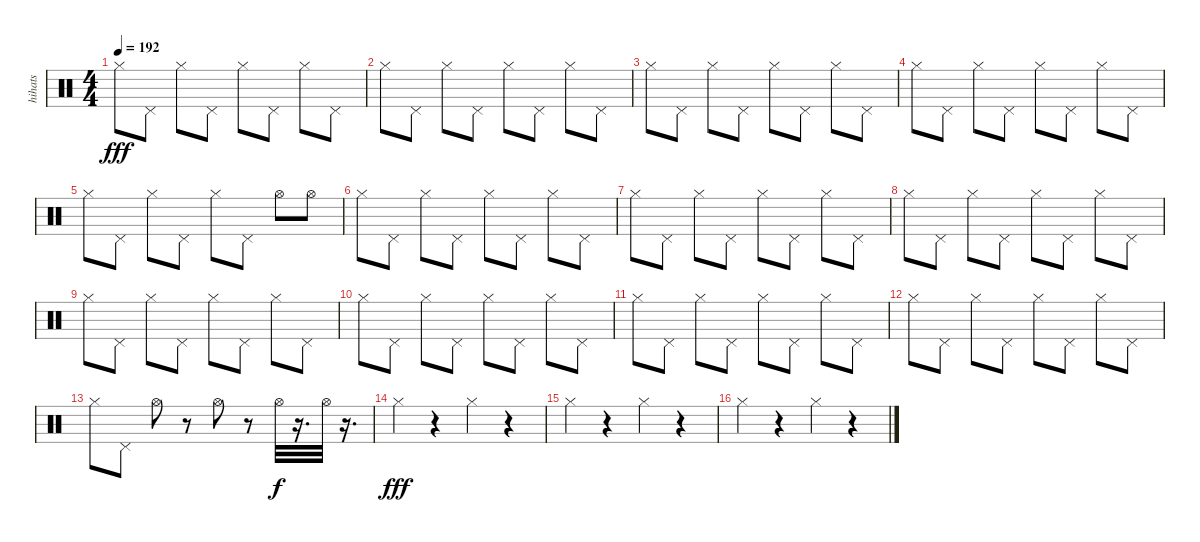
\track ("hihats" "hihats") {instrument percussion}
\staff {score}
\articulation defaults
\ts (4 4)
\tempo 192
\clef neutral
\ks c "Hi-Hat (closed)".8{dy fff} "Pedal Hi-Hat (hit)".8 "Hi-Hat (closed)".8 "Pedal Hi-Hat (hit)".8 "Hi-Hat (closed)".8 "Pedal Hi-Hat (hit)".8 "Hi-Hat (closed)".8 "Pedal Hi-Hat (hit)".8
|
"Hi-Hat (closed)".8 "Pedal Hi-Hat (hit)".8 "Hi-Hat (closed)".8 "Pedal Hi-Hat (hit)".8 "Hi-Hat (closed)".8 "Pedal Hi-Hat (hit)".8 "Hi-Hat (closed)".8 "Pedal Hi-Hat (hit)".8 |
"Hi-Hat (closed)".8 "Pedal Hi-Hat (hit)".8 "Hi-Hat (closed)".8 "Pedal Hi-Hat (hit)".8 "Hi-Hat (closed)".8 "Pedal Hi-Hat (hit)".8 "Hi-Hat (closed)".8 "Pedal Hi-Hat (hit)".8 |
"Hi-Hat (closed)".8 "Pedal Hi-Hat (hit)".8 "Hi-Hat (closed)".8 "Pedal Hi-Hat (hit)".8 "Hi-Hat (closed)".8 "Pedal Hi-Hat (hit)".8 "Hi-Hat (closed)".8 "Pedal Hi-Hat (hit)".8 |
"Hi-Hat (closed)".8 "Pedal Hi-Hat (hit)".8 "Hi-Hat (closed)".8 "Pedal Hi-Hat (hit)".8 "Hi-Hat (closed)".8 "Pedal Hi-Hat (hit)".8 "Hi-Hat (open)".8 "Hi-Hat (open)".8 |
"Hi-Hat (closed)".8 "Pedal Hi-Hat (hit)".8 "Hi-Hat (closed)".8 "Pedal Hi-Hat (hit)".8 "Hi-Hat (closed)".8 "Pedal Hi-Hat (hit)".8 "Hi-Hat (closed)".8 "Pedal Hi-Hat (hit)".8 |
"Hi-Hat (closed)".8 "Pedal Hi-Hat (hit)".8 "Hi-Hat (closed)".8 "Pedal Hi-Hat (hit)".8 "Hi-Hat (closed)".8 "Pedal Hi-Hat (hit)".8 "Hi-Hat (closed)".8 "Pedal Hi-Hat (hit)".8 |
"Hi-Hat (closed)".8 "Pedal Hi-Hat (hit)".8 "Hi-Hat (closed)".8 "Pedal Hi-Hat (hit)".8 "Hi-Hat (closed)".8 "Pedal Hi-Hat (hit)".8 "Hi-Hat (closed)".8 "Pedal Hi-Hat (hit)".8 |
"Hi-Hat (closed)".8 "Pedal Hi-Hat (hit)".8 "Hi-Hat (closed)".8 "Pedal Hi-Hat (hit)".8 "Hi-Hat (closed)".8 "Pedal Hi-Hat (hit)".8 "Hi-Hat (closed)".8 "Pedal Hi-Hat (hit)".8 |
"Hi-Hat (closed)".8 "Pedal Hi-Hat (hit)".8 "Hi-Hat (closed)".8 "Pedal Hi-Hat (hit)".8 "Hi-Hat (closed)".8 "Pedal Hi-Hat (hit)".8 "Hi-Hat (closed)".8 "Pedal Hi-Hat (hit)".8 |
"Hi-Hat (closed)".8 "Pedal Hi-Hat (hit)".8 "Hi-Hat (closed)".8 "Pedal Hi-Hat (hit)".8 "Hi-Hat (closed)".8 "Pedal Hi-Hat (hit)".8 "Hi-Hat (closed)".8 "Pedal Hi-Hat (hit)".8 |
"Hi-Hat (closed)".8 "Pedal Hi-Hat (hit)".8 "Hi-Hat (closed)".8 "Pedal Hi-Hat (hit)".8 "Hi-Hat (closed)".8 "Pedal Hi-Hat (hit)".8 "Hi-Hat (closed)".8 "Pedal Hi-Hat (hit)".8 |
"Hi-Hat (closed)".8 "Pedal Hi-Hat (hit)".8 "Hi-Hat (open)".8 r.8 "Hi-Hat (open)".8 r.8 "Hi-Hat (open)".32{dy f} r.16{d} "Hi-Hat (open)".32 r.16{d} |
"Hi-Hat (closed)".4{dy fff} r.4 "Hi-Hat (closed)".4 r.4 |
"Hi-Hat (closed)".4 r.4 "Hi-Hat (closed)".4 r.4 |
"Hi-Hat (closed)".4 r.4 "Hi-Hat (closed)".4 r.4
